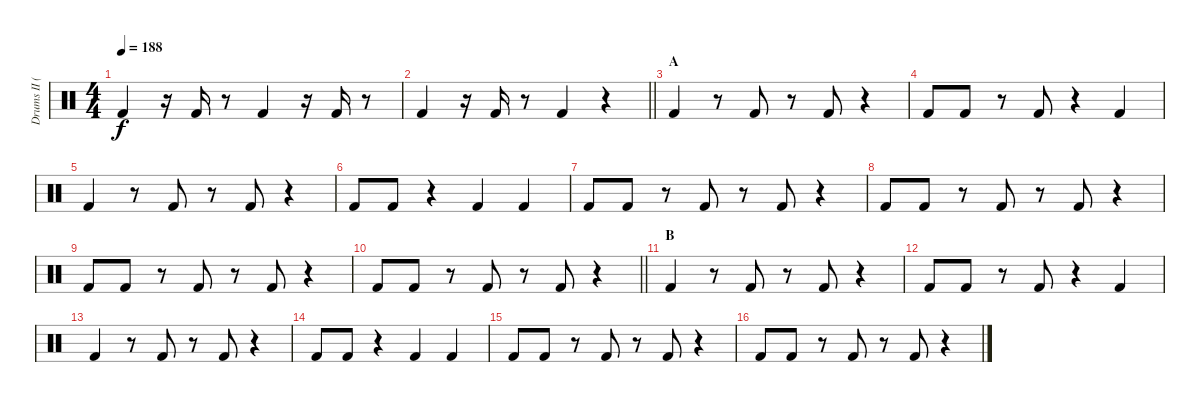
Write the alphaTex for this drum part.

\track ("Drums II (Ruka)" "Drums II (") {instrument percussion}
\staff {score}
\articulation defaults
\ts (4 4)
\tempo 188
\clef neutral
\ks c "Kick (hit) 2".4{dy f}
r.16 "Kick (hit) 2".16 r.8 "Kick (hit) 2".4 r.16 "Kick (hit) 2".16 r.8 |
\barLineRight lightlight "Kick (hit) 2".4
r.16 "Kick (hit) 2".16 r.8 "Kick (hit) 2".4 r.4 |
\section ("" "A")
"Kick (hit) 2".4 r.8 "Kick (hit) 2".8 r.8 "Kick (hit) 2".8 r.4 |
"Kick (hit) 2".8 "Kick (hit) 2".8 r.8 "Kick (hit) 2".8 r.4 "Kick (hit) 2".4 |
"Kick (hit) 2".4 r.8 "Kick (hit) 2".8 r.8 "Kick (hit) 2".8 r.4 |
"Kick (hit) 2".8 "Kick (hit) 2".8 r.4 "Kick (hit) 2".4 "Kick (hit) 2".4 |
"Kick (hit) 2".8 "Kick (hit) 2".8 r.8 "Kick (hit) 2".8 r.8 "Kick (hit) 2".8 r.4 |
"Kick (hit) 2".8 "Kick (hit) 2".8 r.8 "Kick (hit) 2".8 r.8 "Kick (hit) 2".8 r.4 |
"Kick (hit) 2".8 "Kick (hit) 2".8 r.8 "Kick (hit) 2".8 r.8 "Kick (hit) 2".8 r.4 |
\barLineRight lightlight "Kick (hit) 2".8 "Kick (hit) 2".8
r.8 "Kick (hit) 2".8 r.8 "Kick (hit) 2".8 r.4 |
\section ("" "B")
"Kick (hit) 2".4 r.8 "Kick (hit) 2".8 r.8 "Kick (hit) 2".8 r.4 |
"Kick (hit) 2".8 "Kick (hit) 2".8 r.8 "Kick (hit) 2".8 r.4 "Kick (hit) 2".4 |
"Kick (hit) 2".4 r.8 "Kick (hit) 2".8 r.8 "Kick (hit) 2".8 r.4 |
"Kick (hit) 2".8 "Kick (hit) 2".8 r.4 "Kick (hit) 2".4 "Kick (hit) 2".4 |
"Kick (hit) 2".8 "Kick (hit) 2".8 r.8 "Kick (hit) 2".8 r.8 "Kick (hit) 2".8 r.4 |
"Kick (hit) 2".8 "Kick (hit) 2".8 r.8 "Kick (hit) 2".8 r.8 "Kick (hit) 2".8 r.4
